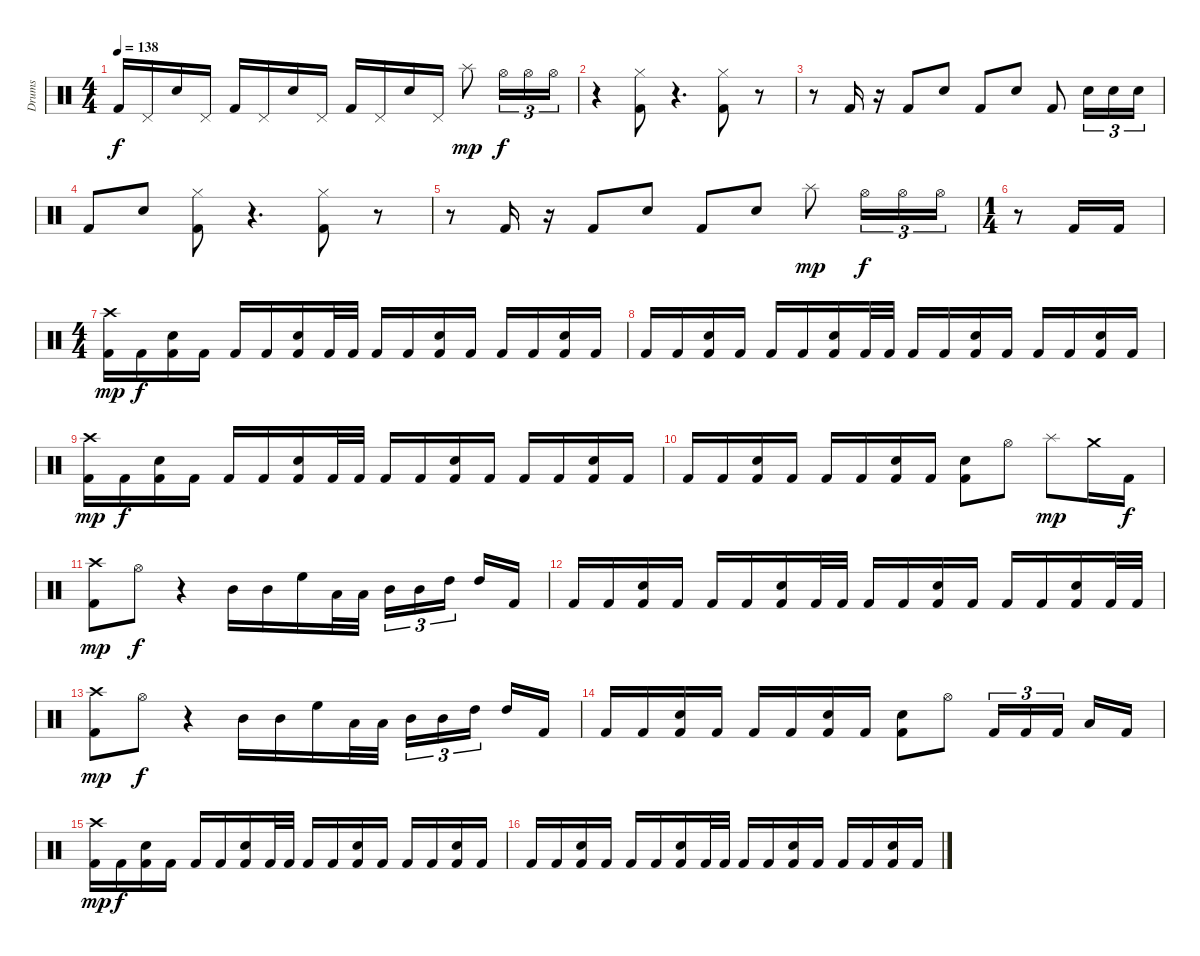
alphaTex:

\track ("Drums" "Drums") {instrument percussion}
\staff {score}
\articulation defaults
\ts (4 4)
\tempo 138
\clef neutral
\ks c "Kick (hit) 2".16{dy f} "Pedal Hi-Hat (hit)".16 "Electric Snare (hit)".16 "Pedal Hi-Hat (hit)".16 "Kick (hit) 2".16 "Pedal Hi-Hat (hit)".16 "Electric Snare (hit)".16 "Pedal Hi-Hat (hit)".16 "Kick (hit) 2".16 "Pedal Hi-Hat (hit)".16 "Electric Snare (hit)".16 "Pedal Hi-Hat (hit)".16 "Splash (hit)".8{dy mp} "Hi-Hat (open)".16{tu (3 2) dy f} "Hi-Hat (open)".16{tu (3 2)} "Hi-Hat (open)".16{tu (3 2)}
|
r.4 ("Hi-Hat (closed)" "Kick (hit) 2").8 r.4{d} ("Hi-Hat (closed)" "Kick (hit) 2").8 r.8 |
r.8 "Kick (hit) 2".16 r.16 "Kick (hit) 2".8 "Electric Snare (hit)".8 "Kick (hit) 2".8 "Electric Snare (hit)".8 "Kick (hit) 2".8 "Electric Snare (hit)".16{tu (3 2)} "Electric Snare (hit)".16{tu (3 2)} "Electric Snare (hit)".16{tu (3 2)} |
"Kick (hit) 2".8 "Electric Snare (hit)".8 ("Hi-Hat (closed)" "Kick (hit) 2").8 r.4{d} ("Hi-Hat (closed)" "Kick (hit) 2").8 r.8 |
r.8 "Kick (hit) 2".16 r.16 "Kick (hit) 2".8 "Electric Snare (hit)".8 "Kick (hit) 2".8 "Electric Snare (hit)".8 "Splash (hit)".8{dy mp} "Hi-Hat (open)".16{tu (3 2) dy f} "Hi-Hat (open)".16{tu (3 2)} "Hi-Hat (open)".16{tu (3 2)} |
\ts (1 4)
r.8 "Kick (hit) 2".16 "Kick (hit) 2".16 |
\ts (4 4)
("Kick (hit) 2" "Crash high (hit)").16{dy mp} "Kick (hit) 2".16{dy f} ("Kick (hit) 2" "Electric Snare (hit)").16 "Kick (hit) 2".16 "Kick (hit) 2".16 "Kick (hit) 2".16 ("Kick (hit) 2" "Electric Snare (hit)").16 "Kick (hit) 2".32 "Kick (hit) 2".32 "Kick (hit) 2".16 "Kick (hit) 2".16 ("Kick (hit) 2" "Electric Snare (hit)").16 "Kick (hit) 2".16 "Kick (hit) 2".16 "Kick (hit) 2".16 ("Kick (hit) 2" "Electric Snare (hit)").16 "Kick (hit) 2".16 |
"Kick (hit) 2".16 "Kick (hit) 2".16 ("Kick (hit) 2" "Electric Snare (hit)").16 "Kick (hit) 2".16 "Kick (hit) 2".16 "Kick (hit) 2".16 ("Kick (hit) 2" "Electric Snare (hit)").16 "Kick (hit) 2".32 "Kick (hit) 2".32 "Kick (hit) 2".16 "Kick (hit) 2".16 ("Kick (hit) 2" "Electric Snare (hit)").16 "Kick (hit) 2".16 "Kick (hit) 2".16 "Kick (hit) 2".16 ("Kick (hit) 2" "Electric Snare (hit)").16 "Kick (hit) 2".16 |
("Kick (hit) 2" "Crash high (hit)").16{dy mp} "Kick (hit) 2".16{dy f} ("Kick (hit) 2" "Electric Snare (hit)").16 "Kick (hit) 2".16 "Kick (hit) 2".16 "Kick (hit) 2".16 ("Kick (hit) 2" "Electric Snare (hit)").16 "Kick (hit) 2".32 "Kick (hit) 2".32 "Kick (hit) 2".16 "Kick (hit) 2".16 ("Kick (hit) 2" "Electric Snare (hit)").16 "Kick (hit) 2".16 "Kick (hit) 2".16 "Kick (hit) 2".16 ("Kick (hit) 2" "Electric Snare (hit)").16 "Kick (hit) 2".16 |
"Kick (hit) 2".16 "Kick (hit) 2".16 ("Kick (hit) 2" "Electric Snare (hit)").16 "Kick (hit) 2".16 "Kick (hit) 2".16 "Kick (hit) 2".16 ("Kick (hit) 2" "Electric Snare (hit)").16 "Kick (hit) 2".16 ("Kick (hit) 2" "Electric Snare (hit)").8 "Hi-Hat (open)".8 "Splash (hit)".8{dy mp} "Crash medium (hit)".16 "Kick (hit) 2".16{dy f} |
("Kick (hit) 2" "Crash high (hit)").8{dy mp} "Hi-Hat (open)".8{dy f} r.4 "Mid Tom (hit)".16 "Mid Tom (hit)".16 "High Floor Tom (hit)".16 "Low Tom (hit)".32 "Low Tom (hit)".32 "Mid Tom (hit)".16{tu (3 2)} "Mid Tom (hit)".16{tu (3 2)} "High Tom (hit)".16{tu (3 2)} "High Tom (hit)".16 "Kick (hit) 2".16 |
"Kick (hit) 2".16 "Kick (hit) 2".16 ("Kick (hit) 2" "Electric Snare (hit)").16 "Kick (hit) 2".16 "Kick (hit) 2".16 "Kick (hit) 2".16 ("Kick (hit) 2" "Electric Snare (hit)").16 "Kick (hit) 2".32 "Kick (hit) 2".32 "Kick (hit) 2".16 "Kick (hit) 2".16 ("Kick (hit) 2" "Electric Snare (hit)").16 "Kick (hit) 2".16 "Kick (hit) 2".16 "Kick (hit) 2".16 ("Kick (hit) 2" "Electric Snare (hit)").16 "Kick (hit) 2".32 "Kick (hit) 2".32 |
("Kick (hit) 2" "Crash high (hit)").8{dy mp} "Hi-Hat (open)".8{dy f} r.4 "Mid Tom (hit)".16 "Mid Tom (hit)".16 "High Floor Tom (hit)".16 "Low Tom (hit)".32 "Low Tom (hit)".32 "Mid Tom (hit)".16{tu (3 2)} "Mid Tom (hit)".16{tu (3 2)} "High Tom (hit)".16{tu (3 2)} "High Tom (hit)".16 "Kick (hit) 2".16 |
"Kick (hit) 2".16 "Kick (hit) 2".16 ("Kick (hit) 2" "Electric Snare (hit)").16 "Kick (hit) 2".16 "Kick (hit) 2".16 "Kick (hit) 2".16 ("Kick (hit) 2" "Electric Snare (hit)").16 "Kick (hit) 2".16 ("Kick (hit) 2" "Electric Snare (hit)").8 "Hi-Hat (open)".8 "Kick (hit) 2".16{tu (3 2)} "Kick (hit) 2".16{tu (3 2)} "Kick (hit) 2".16{tu (3 2)} "Low Tom (hit)".16 "Kick (hit) 2".16 |
("Kick (hit) 2" "Crash high (hit)").16{dy mp} "Kick (hit) 2".16{dy f} ("Kick (hit) 2" "Electric Snare (hit)").16 "Kick (hit) 2".16 "Kick (hit) 2".16 "Kick (hit) 2".16 ("Kick (hit) 2" "Electric Snare (hit)").16 "Kick (hit) 2".32 "Kick (hit) 2".32 "Kick (hit) 2".16 "Kick (hit) 2".16 ("Kick (hit) 2" "Electric Snare (hit)").16 "Kick (hit) 2".16 "Kick (hit) 2".16 "Kick (hit) 2".16 ("Kick (hit) 2" "Electric Snare (hit)").16 "Kick (hit) 2".16 |
"Kick (hit) 2".16 "Kick (hit) 2".16 ("Kick (hit) 2" "Electric Snare (hit)").16 "Kick (hit) 2".16 "Kick (hit) 2".16 "Kick (hit) 2".16 ("Kick (hit) 2" "Electric Snare (hit)").16 "Kick (hit) 2".32 "Kick (hit) 2".32 "Kick (hit) 2".16 "Kick (hit) 2".16 ("Kick (hit) 2" "Electric Snare (hit)").16 "Kick (hit) 2".16 "Kick (hit) 2".16 "Kick (hit) 2".16 ("Kick (hit) 2" "Electric Snare (hit)").16 "Kick (hit) 2".16
